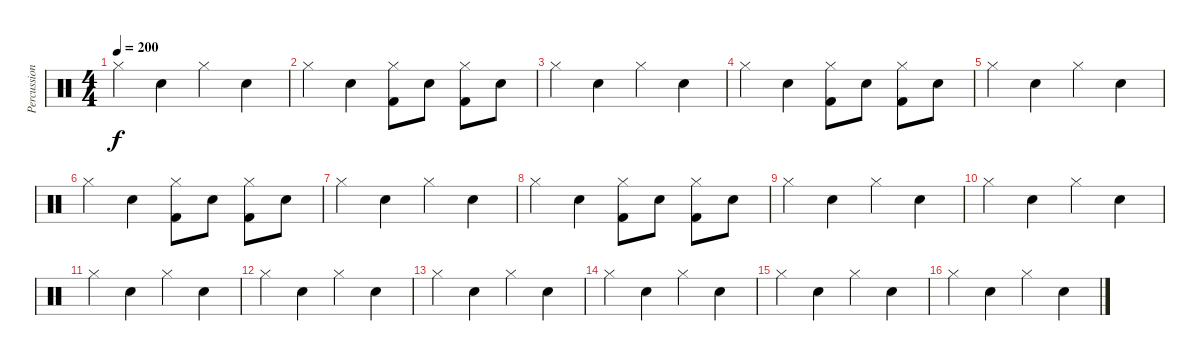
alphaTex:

\track ("Percussion" "Percussion") {instrument percussion}
\staff {score}
\articulation defaults
\ts (4 4)
\tempo 200
\clef neutral
\ks c "Hi-Hat (closed)".4{dy f} "Snare (hit) 2".4 "Hi-Hat (closed)".4 "Snare (hit) 2".4
|
"Hi-Hat (closed)".4 "Snare (hit) 2".4 ("Kick (hit) 2" "Hi-Hat (closed)").8 "Snare (hit) 2".8 ("Kick (hit) 2" "Hi-Hat (closed)").8 "Snare (hit) 2".8 |
"Hi-Hat (closed)".4 "Snare (hit) 2".4 "Hi-Hat (closed)".4 "Snare (hit) 2".4 |
"Hi-Hat (closed)".4 "Snare (hit) 2".4 ("Kick (hit) 2" "Hi-Hat (closed)").8 "Snare (hit) 2".8 ("Kick (hit) 2" "Hi-Hat (closed)").8 "Snare (hit) 2".8 |
"Hi-Hat (closed)".4 "Snare (hit) 2".4 "Hi-Hat (closed)".4 "Snare (hit) 2".4 |
"Hi-Hat (closed)".4 "Snare (hit) 2".4 ("Kick (hit) 2" "Hi-Hat (closed)").8 "Snare (hit) 2".8 ("Kick (hit) 2" "Hi-Hat (closed)").8 "Snare (hit) 2".8 |
"Hi-Hat (closed)".4 "Snare (hit) 2".4 "Hi-Hat (closed)".4 "Snare (hit) 2".4 |
"Hi-Hat (closed)".4 "Snare (hit) 2".4 ("Kick (hit) 2" "Hi-Hat (closed)").8 "Snare (hit) 2".8 ("Kick (hit) 2" "Hi-Hat (closed)").8 "Snare (hit) 2".8 |
"Hi-Hat (closed)".4 "Snare (hit) 2".4 "Hi-Hat (closed)".4 "Snare (hit) 2".4 |
"Hi-Hat (closed)".4 "Snare (hit) 2".4 "Hi-Hat (closed)".4 "Snare (hit) 2".4 |
"Hi-Hat (closed)".4 "Snare (hit) 2".4 "Hi-Hat (closed)".4 "Snare (hit) 2".4 |
"Hi-Hat (closed)".4 "Snare (hit) 2".4 "Hi-Hat (closed)".4 "Snare (hit) 2".4 |
"Hi-Hat (closed)".4 "Snare (hit) 2".4 "Hi-Hat (closed)".4 "Snare (hit) 2".4 |
"Hi-Hat (closed)".4 "Snare (hit) 2".4 "Hi-Hat (closed)".4 "Snare (hit) 2".4 |
"Hi-Hat (closed)".4 "Snare (hit) 2".4 "Hi-Hat (closed)".4 "Snare (hit) 2".4 |
"Hi-Hat (closed)".4 "Snare (hit) 2".4 "Hi-Hat (closed)".4 "Snare (hit) 2".4
